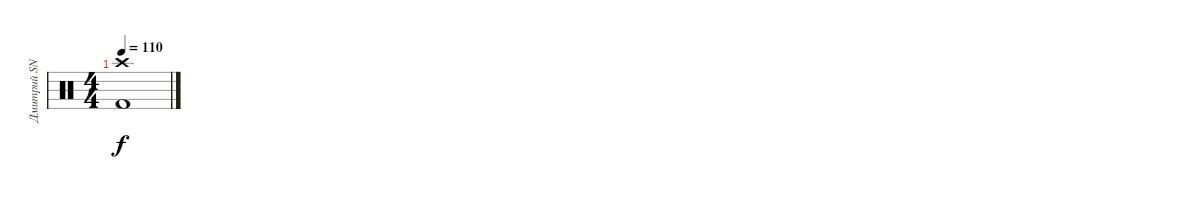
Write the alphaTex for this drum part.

\track ("Дмитрий SNAKE Хакимов" "Дмитрий SN") {instrument percussion}
\staff {score}
\articulation defaults
\ts (4 4)
\tempo 110
\clef neutral
\ks c
("Crash high (hit)" "Kick (hit) 2").1{dy f}
